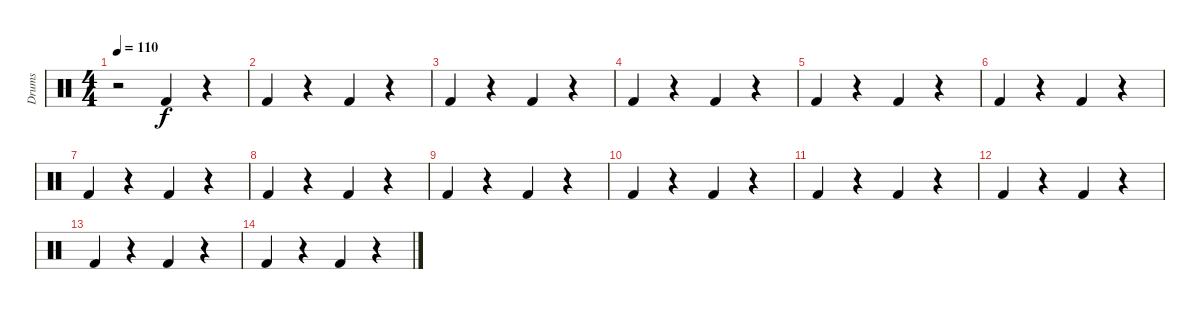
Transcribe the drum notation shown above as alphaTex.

\track ("Drums" "Drums") {instrument percussion}
\staff {score}
\articulation defaults
\ts (4 4)
\tempo 110
\clef neutral
\ks c
r.2{dy pp} "Kick (hit) 2".4{dy f} r.4 |
"Kick (hit) 2".4 r.4 "Kick (hit) 2".4 r.4 |
"Kick (hit) 2".4 r.4 "Kick (hit) 2".4 r.4 |
"Kick (hit) 2".4 r.4 "Kick (hit) 2".4 r.4 |
"Kick (hit) 2".4 r.4 "Kick (hit) 2".4 r.4 |
"Kick (hit) 2".4 r.4 "Kick (hit) 2".4 r.4 |
"Kick (hit) 2".4 r.4 "Kick (hit) 2".4 r.4 |
"Kick (hit) 2".4 r.4 "Kick (hit) 2".4 r.4 |
"Kick (hit) 2".4 r.4 "Kick (hit) 2".4 r.4 |
"Kick (hit) 2".4 r.4 "Kick (hit) 2".4 r.4 |
"Kick (hit) 2".4 r.4 "Kick (hit) 2".4 r.4 |
"Kick (hit) 2".4 r.4 "Kick (hit) 2".4 r.4 |
"Kick (hit) 2".4 r.4 "Kick (hit) 2".4 r.4 |
"Kick (hit) 2".4 r.4 "Kick (hit) 2".4 r.4
